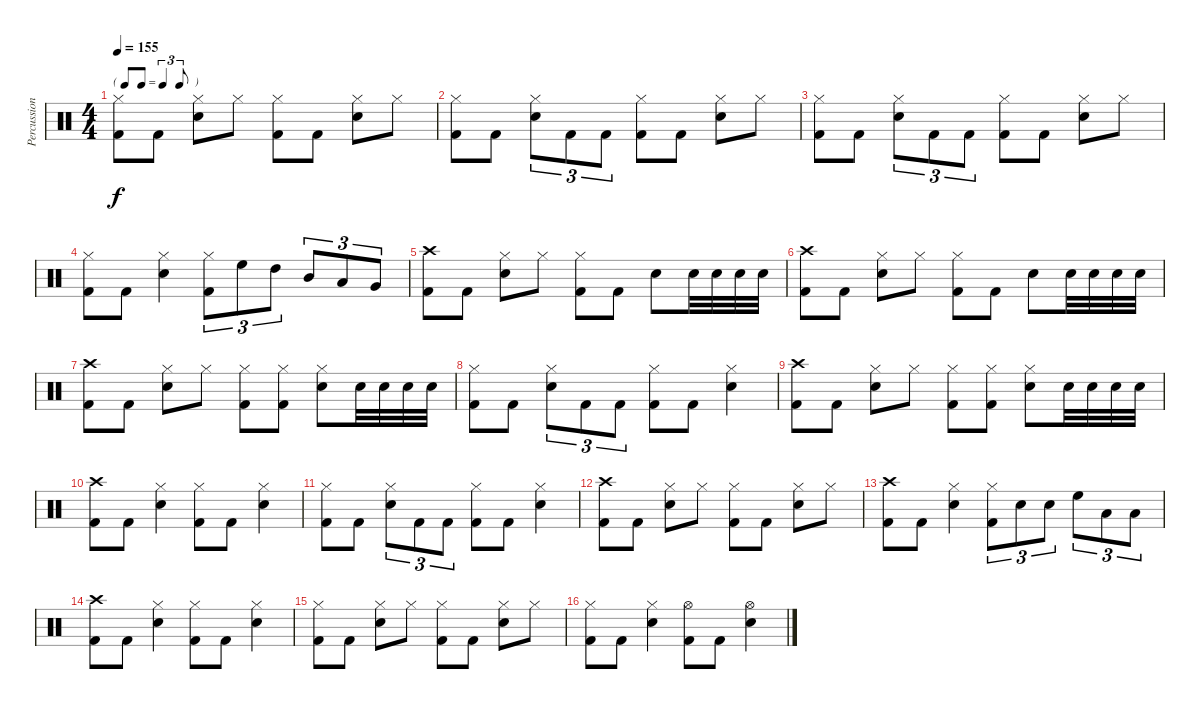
\track ("Percussion" "Percussion") {instrument percussion}
\staff {score}
\articulation defaults
\ts (4 4)
\tf triplet8th
\tempo 155
\clef neutral
\ks c
("Kick (hit) 2" "Hi-Hat (closed)").8{dy f} "Kick (hit) 2".8 ("Snare (hit) 2" "Hi-Hat (closed)").8 "Hi-Hat (closed)".8 ("Kick (hit) 2" "Hi-Hat (closed)").8 "Kick (hit) 2".8 ("Snare (hit) 2" "Hi-Hat (closed)").8 "Hi-Hat (closed)".8 |
("Kick (hit) 2" "Hi-Hat (closed)").8 "Kick (hit) 2".8 ("Snare (hit) 2" "Hi-Hat (closed)").8{tu (3 2)} "Kick (hit) 2".8{tu (3 2)} "Kick (hit) 2".8{tu (3 2)} ("Kick (hit) 2" "Hi-Hat (closed)").8 "Kick (hit) 2".8 ("Snare (hit) 2" "Hi-Hat (closed)").8 "Hi-Hat (closed)".8 |
("Kick (hit) 2" "Hi-Hat (closed)").8 "Kick (hit) 2".8 ("Snare (hit) 2" "Hi-Hat (closed)").8{tu (3 2)} "Kick (hit) 2".8{tu (3 2)} "Kick (hit) 2".8{tu (3 2)} ("Kick (hit) 2" "Hi-Hat (closed)").8 "Kick (hit) 2".8 ("Snare (hit) 2" "Hi-Hat (closed)").8 "Hi-Hat (closed)".8 |
("Kick (hit) 2" "Hi-Hat (closed)").8 "Kick (hit) 2".8 ("Snare (hit) 2" "Hi-Hat (closed)").4 ("Kick (hit) 2" "Hi-Hat (closed)").8{tu (3 2)} "High Floor Tom (hit)".8{tu (3 2)} "High Tom (hit)".8{tu (3 2)} "Mid Tom (hit)".8{tu (3 2)} "Low Tom (hit)".8{tu (3 2)} "Very Low Tom (hit)".8{tu (3 2)} |
("Kick (hit) 2" "Crash high (hit)").8 "Kick (hit) 2".8 ("Snare (hit) 2" "Hi-Hat (closed)").8 "Hi-Hat (closed)".8 ("Kick (hit) 2" "Hi-Hat (closed)").8 "Kick (hit) 2".8 "Snare (hit) 2".8 "Snare (hit) 2".32 "Snare (hit) 2".32 "Snare (hit) 2".32 "Snare (hit) 2".32 |
("Kick (hit) 2" "Crash high (hit)").8 "Kick (hit) 2".8 ("Snare (hit) 2" "Hi-Hat (closed)").8 "Hi-Hat (closed)".8 ("Kick (hit) 2" "Hi-Hat (closed)").8 "Kick (hit) 2".8 "Snare (hit) 2".8 "Snare (hit) 2".32 "Snare (hit) 2".32 "Snare (hit) 2".32 "Snare (hit) 2".32 |
("Kick (hit) 2" "Crash high (hit)").8 "Kick (hit) 2".8 ("Snare (hit) 2" "Hi-Hat (closed)").8 "Hi-Hat (closed)".8 ("Kick (hit) 2" "Hi-Hat (closed)").8 ("Kick (hit) 2" "Hi-Hat (closed)").8 ("Snare (hit) 2" "Hi-Hat (closed)").8 "Snare (hit) 2".32 "Snare (hit) 2".32 "Snare (hit) 2".32 "Snare (hit) 2".32 |
("Kick (hit) 2" "Hi-Hat (closed)").8 "Kick (hit) 2".8 ("Snare (hit) 2" "Hi-Hat (closed)").8{tu (3 2)} "Kick (hit) 2".8{tu (3 2)} "Kick (hit) 2".8{tu (3 2)} ("Kick (hit) 2" "Hi-Hat (closed)").8 "Kick (hit) 2".8 ("Snare (hit) 2" "Hi-Hat (closed)").4 |
("Kick (hit) 2" "Crash high (hit)").8 "Kick (hit) 2".8 ("Snare (hit) 2" "Hi-Hat (closed)").8 "Hi-Hat (closed)".8 ("Kick (hit) 2" "Hi-Hat (closed)").8 ("Kick (hit) 2" "Hi-Hat (closed)").8 ("Snare (hit) 2" "Hi-Hat (closed)").8 "Snare (hit) 2".32 "Snare (hit) 2".32 "Snare (hit) 2".32 "Snare (hit) 2".32 |
("Kick (hit) 2" "Crash high (hit)").8 "Kick (hit) 2".8 ("Snare (hit) 2" "Hi-Hat (closed)").4 ("Kick (hit) 2" "Hi-Hat (closed)").8 "Kick (hit) 2".8 ("Snare (hit) 2" "Hi-Hat (closed)").4 |
("Kick (hit) 2" "Hi-Hat (closed)").8 "Kick (hit) 2".8 ("Snare (hit) 2" "Hi-Hat (closed)").8{tu (3 2)} "Kick (hit) 2".8{tu (3 2)} "Kick (hit) 2".8{tu (3 2)} ("Kick (hit) 2" "Hi-Hat (closed)").8 "Kick (hit) 2".8 ("Snare (hit) 2" "Hi-Hat (closed)").4 |
("Kick (hit) 2" "Crash high (hit)").8 "Kick (hit) 2".8 ("Snare (hit) 2" "Hi-Hat (closed)").8 "Hi-Hat (closed)".8 ("Kick (hit) 2" "Hi-Hat (closed)").8 "Kick (hit) 2".8 ("Snare (hit) 2" "Hi-Hat (closed)").8 "Hi-Hat (closed)".8 |
("Kick (hit) 2" "Crash high (hit)").8 "Kick (hit) 2".8 ("Snare (hit) 2" "Hi-Hat (closed)").4 ("Kick (hit) 2" "Hi-Hat (closed)").8{tu (3 2)} "Snare (hit) 2".8{tu (3 2)} "Snare (hit) 2".8{tu (3 2)} "High Floor Tom (hit)".8{tu (3 2)} "Low Tom (hit)".8{tu (3 2)} "Low Floor Tom (hit)".8{tu (3 2)} |
("Kick (hit) 2" "Crash high (hit)").8 "Kick (hit) 2".8 ("Snare (hit) 2" "Hi-Hat (closed)").4 ("Kick (hit) 2" "Hi-Hat (closed)").8 "Kick (hit) 2".8 ("Snare (hit) 2" "Hi-Hat (closed)").4 |
("Kick (hit) 2" "Hi-Hat (closed)").8 "Kick (hit) 2".8 ("Snare (hit) 2" "Hi-Hat (closed)").8 "Hi-Hat (closed)".8 ("Kick (hit) 2" "Hi-Hat (closed)").8 "Kick (hit) 2".8 ("Snare (hit) 2" "Hi-Hat (closed)").8 "Hi-Hat (closed)".8 |
("Kick (hit) 2" "Hi-Hat (closed)").8 "Kick (hit) 2".8 ("Snare (hit) 2" "Hi-Hat (closed)").4 ("Kick (hit) 2" "Hi-Hat (open)").8 "Kick (hit) 2".8 ("Snare (hit) 2" "Hi-Hat (open)").4
